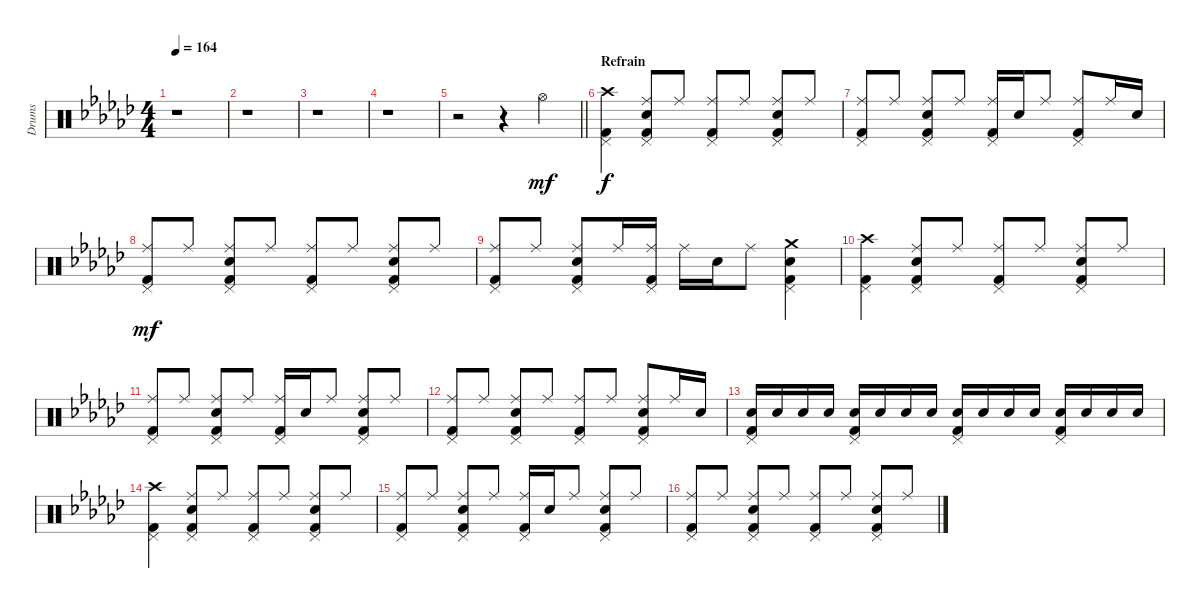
\track ("Drums" "Drums") {instrument percussion}
\staff {score}
\articulation defaults
\ts (4 4)
\tempo 164
\clef neutral
\ks gb
r.1{dy mf} |
r.1 |
r.1 |
r.1 |
\barLineRight lightlight
r.2 r.4 "Hi-Hat (open)".4 |
\section ("" "Refrain")
("Crash high (hit)" "Pedal Hi-Hat (hit)" "Kick (hit) 2").4{dy f} ("Ride (middle)" "Snare (hit) 2" "Pedal Hi-Hat (hit)" "Kick (hit) 2").8 "Ride (middle)".8 ("Ride (middle)" "Pedal Hi-Hat (hit)" "Kick (hit) 2").8 "Ride (middle)".8 ("Ride (middle)" "Snare (hit) 2" "Pedal Hi-Hat (hit)" "Kick (hit) 2").8 "Ride (middle)".8 |
("Ride (middle)" "Pedal Hi-Hat (hit)" "Kick (hit) 2").8 "Ride (middle)".8 ("Ride (middle)" "Snare (hit) 2" "Pedal Hi-Hat (hit)" "Kick (hit) 2").8 "Ride (middle)".8 ("Ride (middle)" "Pedal Hi-Hat (hit)" "Kick (hit) 2").16 "Snare (hit) 2".16 "Ride (middle)".8 ("Ride (middle)" "Pedal Hi-Hat (hit)" "Kick (hit) 2").8 "Ride (middle)".16 "Snare (hit) 2".16 |
("Ride (middle)" "Pedal Hi-Hat (hit)" "Kick (hit) 2").8{dy mf} "Ride (middle)".8 ("Ride (middle)" "Snare (hit) 2" "Pedal Hi-Hat (hit)" "Kick (hit) 2").8 "Ride (middle)".8 ("Ride (middle)" "Pedal Hi-Hat (hit)" "Kick (hit) 2").8 "Ride (middle)".8 ("Ride (middle)" "Snare (hit) 2" "Pedal Hi-Hat (hit)" "Kick (hit) 2").8 "Ride (middle)".8 |
("Ride (middle)" "Pedal Hi-Hat (hit)" "Kick (hit) 2").8 "Ride (middle)".8 ("Ride (middle)" "Snare (hit) 2" "Pedal Hi-Hat (hit)" "Kick (hit) 2").8 "Ride (middle)".16 ("Ride (middle)" "Pedal Hi-Hat (hit)" "Kick (hit) 2").16 "Ride (middle)".16 "Snare (hit) 2".16 "Ride (middle)".8 ("Crash medium (hit)" "Snare (hit) 2" "Pedal Hi-Hat (hit)" "Kick (hit) 2").4 |
("Crash high (hit)" "Pedal Hi-Hat (hit)" "Kick (hit) 2").4 ("Ride (middle)" "Snare (hit) 2" "Pedal Hi-Hat (hit)" "Kick (hit) 2").8 "Ride (middle)".8 ("Ride (middle)" "Pedal Hi-Hat (hit)" "Kick (hit) 2").8 "Ride (middle)".8 ("Ride (middle)" "Snare (hit) 2" "Pedal Hi-Hat (hit)" "Kick (hit) 2").8 "Ride (middle)".8 |
("Ride (middle)" "Pedal Hi-Hat (hit)" "Kick (hit) 2").8 "Ride (middle)".8 ("Ride (middle)" "Snare (hit) 2" "Pedal Hi-Hat (hit)" "Kick (hit) 2").8 "Ride (middle)".8 ("Ride (middle)" "Pedal Hi-Hat (hit)" "Kick (hit) 2").16 "Snare (hit) 2".16 "Ride (middle)".8 ("Ride (middle)" "Snare (hit) 2" "Pedal Hi-Hat (hit)" "Kick (hit) 2").8 "Ride (middle)".8 |
("Ride (middle)" "Pedal Hi-Hat (hit)" "Kick (hit) 2").8 "Ride (middle)".8 ("Ride (middle)" "Snare (hit) 2" "Pedal Hi-Hat (hit)" "Kick (hit) 2").8 "Ride (middle)".8 ("Ride (middle)" "Pedal Hi-Hat (hit)" "Kick (hit) 2").8 "Ride (middle)".8 ("Ride (middle)" "Snare (hit) 2" "Pedal Hi-Hat (hit)" "Kick (hit) 2").8 "Ride (middle)".16 "Snare (hit) 2".16 |
("Snare (hit) 2" "Pedal Hi-Hat (hit)" "Kick (hit) 2").16 "Snare (hit) 2".16 "Snare (hit) 2".16 "Snare (hit) 2".16 ("Snare (hit) 2" "Pedal Hi-Hat (hit)" "Kick (hit) 2").16 "Snare (hit) 2".16 "Snare (hit) 2".16 "Snare (hit) 2".16 ("Snare (hit) 2" "Pedal Hi-Hat (hit)" "Kick (hit) 2").16 "Snare (hit) 2".16 "Snare (hit) 2".16 "Snare (hit) 2".16 ("Snare (hit) 2" "Pedal Hi-Hat (hit)" "Kick (hit) 2").16 "Snare (hit) 2".16 "Snare (hit) 2".16 "Snare (hit) 2".16 |
("Crash high (hit)" "Pedal Hi-Hat (hit)" "Kick (hit) 2").4 ("Ride (middle)" "Snare (hit) 2" "Pedal Hi-Hat (hit)" "Kick (hit) 2").8 "Ride (middle)".8 ("Ride (middle)" "Pedal Hi-Hat (hit)" "Kick (hit) 2").8 "Ride (middle)".8 ("Ride (middle)" "Snare (hit) 2" "Pedal Hi-Hat (hit)" "Kick (hit) 2").8 "Ride (middle)".8 |
("Ride (middle)" "Pedal Hi-Hat (hit)" "Kick (hit) 2").8 "Ride (middle)".8 ("Ride (middle)" "Snare (hit) 2" "Pedal Hi-Hat (hit)" "Kick (hit) 2").8 "Ride (middle)".8 ("Ride (middle)" "Pedal Hi-Hat (hit)" "Kick (hit) 2").16 "Snare (hit) 2".16 "Ride (middle)".8 ("Ride (middle)" "Snare (hit) 2" "Pedal Hi-Hat (hit)" "Kick (hit) 2").8 "Ride (middle)".8 |
("Ride (middle)" "Pedal Hi-Hat (hit)" "Kick (hit) 2").8 "Ride (middle)".8 ("Ride (middle)" "Snare (hit) 2" "Pedal Hi-Hat (hit)" "Kick (hit) 2").8 "Ride (middle)".8 ("Ride (middle)" "Pedal Hi-Hat (hit)" "Kick (hit) 2").8 "Ride (middle)".8 ("Ride (middle)" "Snare (hit) 2" "Pedal Hi-Hat (hit)" "Kick (hit) 2").8 "Ride (middle)".8
